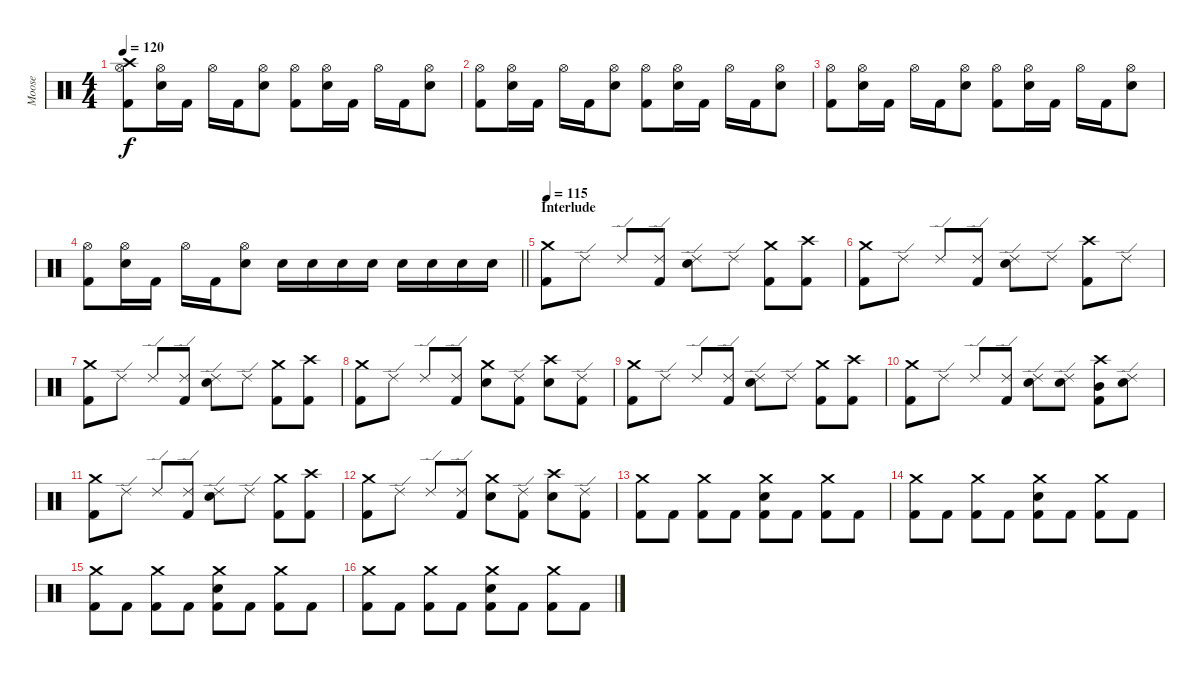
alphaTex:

\track ("Moose" "Moose") {instrument percussion}
\staff {score}
\articulation defaults
\ts (4 4)
\tempo 120
\clef neutral
\ks c
("Crash high (hit)" "Hi-Hat (open)" "Kick (hit) 2").8{dy f} ("Hi-Hat (open)" "Electric Snare (hit)").16 "Kick (hit) 2".16 "Hi-Hat (open)".16 "Kick (hit) 2".16 ("Hi-Hat (open)" "Electric Snare (hit)").8 ("Hi-Hat (open)" "Kick (hit) 2").8 ("Hi-Hat (open)" "Electric Snare (hit)").16 "Kick (hit) 2".16 "Hi-Hat (open)".16 "Kick (hit) 2".16 ("Hi-Hat (open)" "Electric Snare (hit)").8 |
("Hi-Hat (open)" "Kick (hit) 2").8 ("Hi-Hat (open)" "Electric Snare (hit)").16 "Kick (hit) 2".16 "Hi-Hat (open)".16 "Kick (hit) 2".16 ("Hi-Hat (open)" "Electric Snare (hit)").8 ("Hi-Hat (open)" "Kick (hit) 2").8 ("Hi-Hat (open)" "Electric Snare (hit)").16 "Kick (hit) 2".16 "Hi-Hat (open)".16 "Kick (hit) 2".16 ("Hi-Hat (open)" "Electric Snare (hit)").8 |
("Hi-Hat (open)" "Kick (hit) 2").8 ("Hi-Hat (open)" "Electric Snare (hit)").16 "Kick (hit) 2".16 "Hi-Hat (open)".16 "Kick (hit) 2".16 ("Hi-Hat (open)" "Electric Snare (hit)").8 ("Hi-Hat (open)" "Kick (hit) 2").8 ("Hi-Hat (open)" "Electric Snare (hit)").16 "Kick (hit) 2".16 "Hi-Hat (open)".16 "Kick (hit) 2".16 ("Hi-Hat (open)" "Electric Snare (hit)").8 |
\barLineRight lightlight
("Hi-Hat (open)" "Kick (hit) 2").8 ("Hi-Hat (open)" "Electric Snare (hit)").16 "Kick (hit) 2".16 "Hi-Hat (open)".16 "Kick (hit) 2".16 ("Hi-Hat (open)" "Electric Snare (hit)").8 "Electric Snare (hit)".16 "Electric Snare (hit)".16 "Electric Snare (hit)".16 "Electric Snare (hit)".16 "Electric Snare (hit)".16 "Electric Snare (hit)".16 "Electric Snare (hit)".16 "Electric Snare (hit)".16 |
\section ("" "Interlude")
\tempo 115
("Crash medium (hit)" "Kick (hit) 2").8 "Ride (edge) 2".8 "Ride (edge) 2".8 ("Ride (edge) 2" "Kick (hit) 2").8 ("Ride (edge) 2" "Electric Snare (hit)").8 "Ride (edge) 2".8 ("Crash medium (hit)" "Kick (hit) 2").8 ("Crash high (hit)" "Kick (hit) 2").8 |
("Crash medium (hit)" "Kick (hit) 2").8 "Ride (edge) 2".8 "Ride (edge) 2".8 ("Ride (edge) 2" "Kick (hit) 2").8 ("Ride (edge) 2" "Electric Snare (hit)").8 "Ride (edge) 2".8 ("Crash high (hit)" "Kick (hit) 2").8 "Ride (edge) 2".8 |
("Crash medium (hit)" "Kick (hit) 2").8 "Ride (edge) 2".8 "Ride (edge) 2".8 ("Ride (edge) 2" "Kick (hit) 2").8 ("Ride (edge) 2" "Electric Snare (hit)").8 "Ride (edge) 2".8 ("Crash medium (hit)" "Kick (hit) 2").8 ("Crash high (hit)" "Kick (hit) 2").8 |
("Crash medium (hit)" "Kick (hit) 2").8 "Ride (edge) 2".8 "Ride (edge) 2".8 ("Ride (edge) 2" "Kick (hit) 2").8 ("Crash medium (hit)" "Electric Snare (hit)").8 ("Ride (edge) 2" "Kick (hit) 2").8 ("Crash high (hit)" "Electric Snare (hit)").8 ("Ride (edge) 2" "Kick (hit) 2").8 |
("Crash medium (hit)" "Kick (hit) 2").8 "Ride (edge) 2".8 "Ride (edge) 2".8 ("Ride (edge) 2" "Kick (hit) 2").8 ("Ride (edge) 2" "Electric Snare (hit)").8 "Ride (edge) 2".8 ("Crash medium (hit)" "Kick (hit) 2").8 ("Crash high (hit)" "Kick (hit) 2").8 |
("Crash medium (hit)" "Kick (hit) 2").8 "Ride (edge) 2".8 "Ride (edge) 2".8 ("Ride (edge) 2" "Kick (hit) 2").8 ("Ride (edge) 2" "Electric Snare (hit)").8 ("Ride (edge) 2" "Electric Snare (hit)").8 ("Crash high (hit)" "Mid Tom (hit)" "Kick (hit) 2").8 ("Ride (edge) 2" "Electric Snare (hit)").8 |
("Crash medium (hit)" "Kick (hit) 2").8 "Ride (edge) 2".8 "Ride (edge) 2".8 ("Ride (edge) 2" "Kick (hit) 2").8 ("Ride (edge) 2" "Electric Snare (hit)").8 "Ride (edge) 2".8 ("Crash medium (hit)" "Kick (hit) 2").8 ("Crash high (hit)" "Kick (hit) 2").8 |
("Crash medium (hit)" "Kick (hit) 2").8 "Ride (edge) 2".8 "Ride (edge) 2".8 ("Ride (edge) 2" "Kick (hit) 2").8 ("Crash medium (hit)" "Electric Snare (hit)").8 ("Ride (edge) 2" "Kick (hit) 2").8 ("Crash high (hit)" "Electric Snare (hit)").8 ("Ride (edge) 2" "Kick (hit) 2").8 |
("Crash medium (hit)" "Kick (hit) 2").8 "Kick (hit) 2".8 ("Crash medium (hit)" "Kick (hit) 2").8 "Kick (hit) 2".8 ("Crash medium (hit)" "Electric Snare (hit)" "Kick (hit) 2").8 "Kick (hit) 2".8 ("Crash medium (hit)" "Kick (hit) 2").8 "Kick (hit) 2".8 |
("Crash medium (hit)" "Kick (hit) 2").8 "Kick (hit) 2".8 ("Crash medium (hit)" "Kick (hit) 2").8 "Kick (hit) 2".8 ("Crash medium (hit)" "Electric Snare (hit)" "Kick (hit) 2").8 "Kick (hit) 2".8 ("Crash medium (hit)" "Kick (hit) 2").8 "Kick (hit) 2".8 |
("Crash medium (hit)" "Kick (hit) 2").8 "Kick (hit) 2".8 ("Crash medium (hit)" "Kick (hit) 2").8 "Kick (hit) 2".8 ("Crash medium (hit)" "Electric Snare (hit)" "Kick (hit) 2").8 "Kick (hit) 2".8 ("Crash medium (hit)" "Kick (hit) 2").8 "Kick (hit) 2".8 |
("Crash medium (hit)" "Kick (hit) 2").8 "Kick (hit) 2".8 ("Crash medium (hit)" "Kick (hit) 2").8 "Kick (hit) 2".8 ("Crash medium (hit)" "Electric Snare (hit)" "Kick (hit) 2").8 "Kick (hit) 2".8 ("Crash medium (hit)" "Kick (hit) 2").8 "Kick (hit) 2".8
